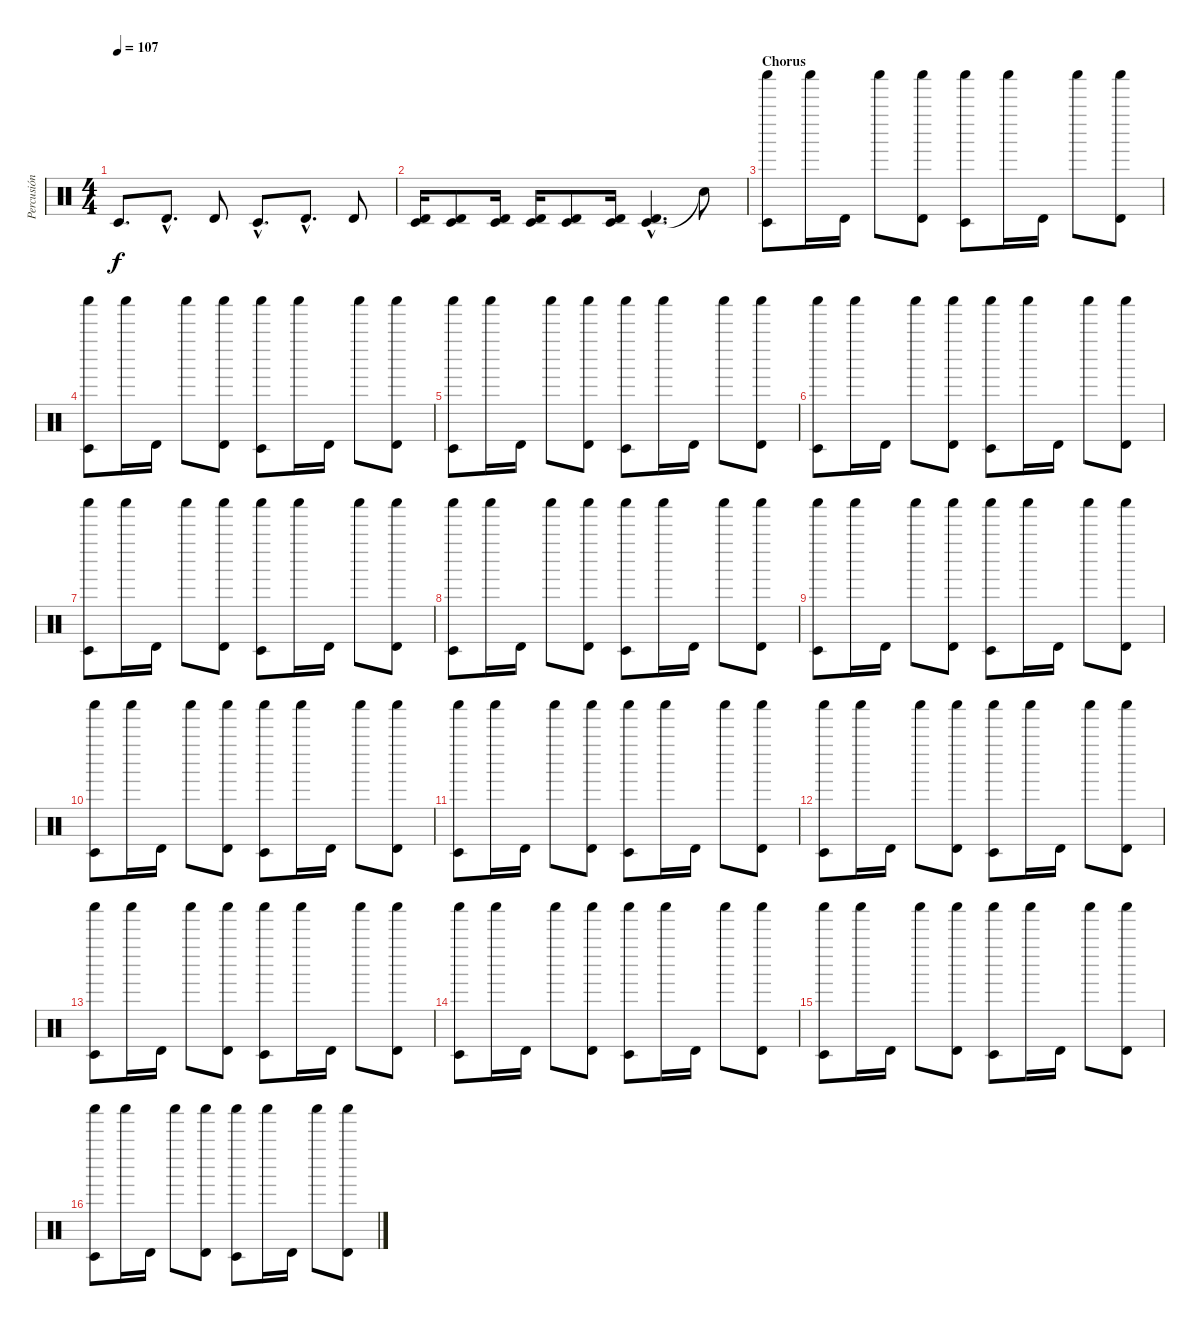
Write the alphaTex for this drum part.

\track ("Percusión" "Percusión") {instrument percussion}
\staff {score}
\articulation defaults
\ts (4 4)
\tempo 107
\clef neutral
\ks c "Timbale low (hit)".8{d dy f} "Timbale high (hit)"{hac}.8{d} "Timbale high (hit)".8 "Timbale low (hit)"{hac}.8{d} "Timbale high (hit)"{hac}.8{d} "Timbale high (hit)".8
|
("Timbale low (hit)" "Timbale high (hit)").16 ("Timbale low (hit)" "Timbale high (hit)").8 ("Timbale low (hit)" "Timbale high (hit)").16 ("Timbale low (hit)" "Timbale high (hit)").16 ("Timbale low (hit)" "Timbale high (hit)").8 ("Timbale low (hit)" "Timbale high (hit)").16 ("Timbale low (hit)"{hac} "Timbale high (hit)"{hac}).4{d} "Snare (hit)"{t}.8 |
\section ("" "Chorus")
("Shaker (hit)" "Timbale low (hit)").8 "Shaker (hit)".16 "Timbale high (hit)".16 "Shaker (hit)".8 ("Shaker (hit)" "Timbale high (hit)").8 ("Shaker (hit)" "Timbale low (hit)").8 "Shaker (hit)".16 "Timbale high (hit)".16 "Shaker (hit)".8 ("Shaker (hit)" "Timbale high (hit)").8 |
("Shaker (hit)" "Timbale low (hit)").8 "Shaker (hit)".16 "Timbale high (hit)".16 "Shaker (hit)".8 ("Shaker (hit)" "Timbale high (hit)").8 ("Shaker (hit)" "Timbale low (hit)").8 "Shaker (hit)".16 "Timbale high (hit)".16 "Shaker (hit)".8 ("Shaker (hit)" "Timbale high (hit)").8 |
("Shaker (hit)" "Timbale low (hit)").8 "Shaker (hit)".16 "Timbale high (hit)".16 "Shaker (hit)".8 ("Shaker (hit)" "Timbale high (hit)").8 ("Shaker (hit)" "Timbale low (hit)").8 "Shaker (hit)".16 "Timbale high (hit)".16 "Shaker (hit)".8 ("Shaker (hit)" "Timbale high (hit)").8 |
("Shaker (hit)" "Timbale low (hit)").8 "Shaker (hit)".16 "Timbale high (hit)".16 "Shaker (hit)".8 ("Shaker (hit)" "Timbale high (hit)").8 ("Shaker (hit)" "Timbale low (hit)").8 "Shaker (hit)".16 "Timbale high (hit)".16 "Shaker (hit)".8 ("Shaker (hit)" "Timbale high (hit)").8 |
("Shaker (hit)" "Timbale low (hit)").8 "Shaker (hit)".16 "Timbale high (hit)".16 "Shaker (hit)".8 ("Shaker (hit)" "Timbale high (hit)").8 ("Shaker (hit)" "Timbale low (hit)").8 "Shaker (hit)".16 "Timbale high (hit)".16 "Shaker (hit)".8 ("Shaker (hit)" "Timbale high (hit)").8 |
("Shaker (hit)" "Timbale low (hit)").8 "Shaker (hit)".16 "Timbale high (hit)".16 "Shaker (hit)".8 ("Shaker (hit)" "Timbale high (hit)").8 ("Shaker (hit)" "Timbale low (hit)").8 "Shaker (hit)".16 "Timbale high (hit)".16 "Shaker (hit)".8 ("Shaker (hit)" "Timbale high (hit)").8 |
("Shaker (hit)" "Timbale low (hit)").8 "Shaker (hit)".16 "Timbale high (hit)".16 "Shaker (hit)".8 ("Shaker (hit)" "Timbale high (hit)").8 ("Shaker (hit)" "Timbale low (hit)").8 "Shaker (hit)".16 "Timbale high (hit)".16 "Shaker (hit)".8 ("Shaker (hit)" "Timbale high (hit)").8 |
("Shaker (hit)" "Timbale low (hit)").8 "Shaker (hit)".16 "Timbale high (hit)".16 "Shaker (hit)".8 ("Shaker (hit)" "Timbale high (hit)").8 ("Shaker (hit)" "Timbale low (hit)").8 "Shaker (hit)".16 "Timbale high (hit)".16 "Shaker (hit)".8 ("Shaker (hit)" "Timbale high (hit)").8 |
("Shaker (hit)" "Timbale low (hit)").8 "Shaker (hit)".16 "Timbale high (hit)".16 "Shaker (hit)".8 ("Shaker (hit)" "Timbale high (hit)").8 ("Shaker (hit)" "Timbale low (hit)").8 "Shaker (hit)".16 "Timbale high (hit)".16 "Shaker (hit)".8 ("Shaker (hit)" "Timbale high (hit)").8 |
("Shaker (hit)" "Timbale low (hit)").8 "Shaker (hit)".16 "Timbale high (hit)".16 "Shaker (hit)".8 ("Shaker (hit)" "Timbale high (hit)").8 ("Shaker (hit)" "Timbale low (hit)").8 "Shaker (hit)".16 "Timbale high (hit)".16 "Shaker (hit)".8 ("Shaker (hit)" "Timbale high (hit)").8 |
("Shaker (hit)" "Timbale low (hit)").8 "Shaker (hit)".16 "Timbale high (hit)".16 "Shaker (hit)".8 ("Shaker (hit)" "Timbale high (hit)").8 ("Shaker (hit)" "Timbale low (hit)").8 "Shaker (hit)".16 "Timbale high (hit)".16 "Shaker (hit)".8 ("Shaker (hit)" "Timbale high (hit)").8 |
("Shaker (hit)" "Timbale low (hit)").8 "Shaker (hit)".16 "Timbale high (hit)".16 "Shaker (hit)".8 ("Shaker (hit)" "Timbale high (hit)").8 ("Shaker (hit)" "Timbale low (hit)").8 "Shaker (hit)".16 "Timbale high (hit)".16 "Shaker (hit)".8 ("Shaker (hit)" "Timbale high (hit)").8 |
("Shaker (hit)" "Timbale low (hit)").8 "Shaker (hit)".16 "Timbale high (hit)".16 "Shaker (hit)".8 ("Shaker (hit)" "Timbale high (hit)").8 ("Shaker (hit)" "Timbale low (hit)").8 "Shaker (hit)".16 "Timbale high (hit)".16 "Shaker (hit)".8 ("Shaker (hit)" "Timbale high (hit)").8 |
("Shaker (hit)" "Timbale low (hit)").8 "Shaker (hit)".16 "Timbale high (hit)".16 "Shaker (hit)".8 ("Shaker (hit)" "Timbale high (hit)").8 ("Shaker (hit)" "Timbale low (hit)").8 "Shaker (hit)".16 "Timbale high (hit)".16 "Shaker (hit)".8 ("Shaker (hit)" "Timbale high (hit)").8
